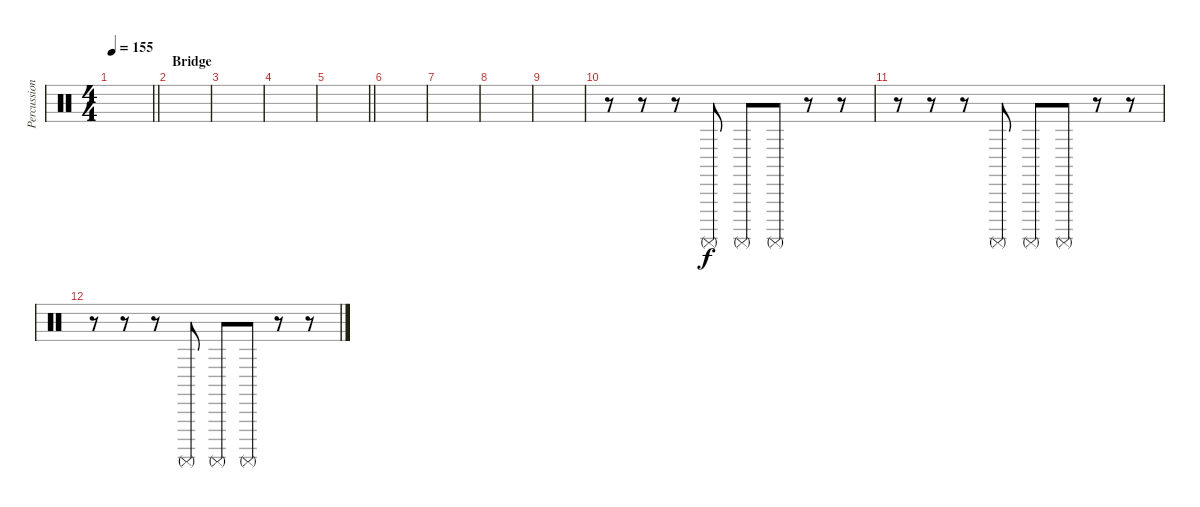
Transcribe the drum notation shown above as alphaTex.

\track ("Percussion Overdub" "Percussion") {instrument percussion}
\staff
\articulation defaults
\ts (4 4)
\tempo 155
\clef neutral
\barLineRight lightlight
\ks c
|
\section ("" "Bridge")
|
|
|
\barLineRight lightlight
|
|
|
|
|
r.8 r.8 r.8 "Surdo (mute)".8 "Surdo (mute)".8 "Surdo (mute)".8 r.8 r.8 |
r.8 r.8 r.8 "Surdo (mute)".8 "Surdo (mute)".8 "Surdo (mute)".8 r.8 r.8 |
r.8 r.8 r.8 "Surdo (mute)".8 "Surdo (mute)".8 "Surdo (mute)".8 r.8 r.8
